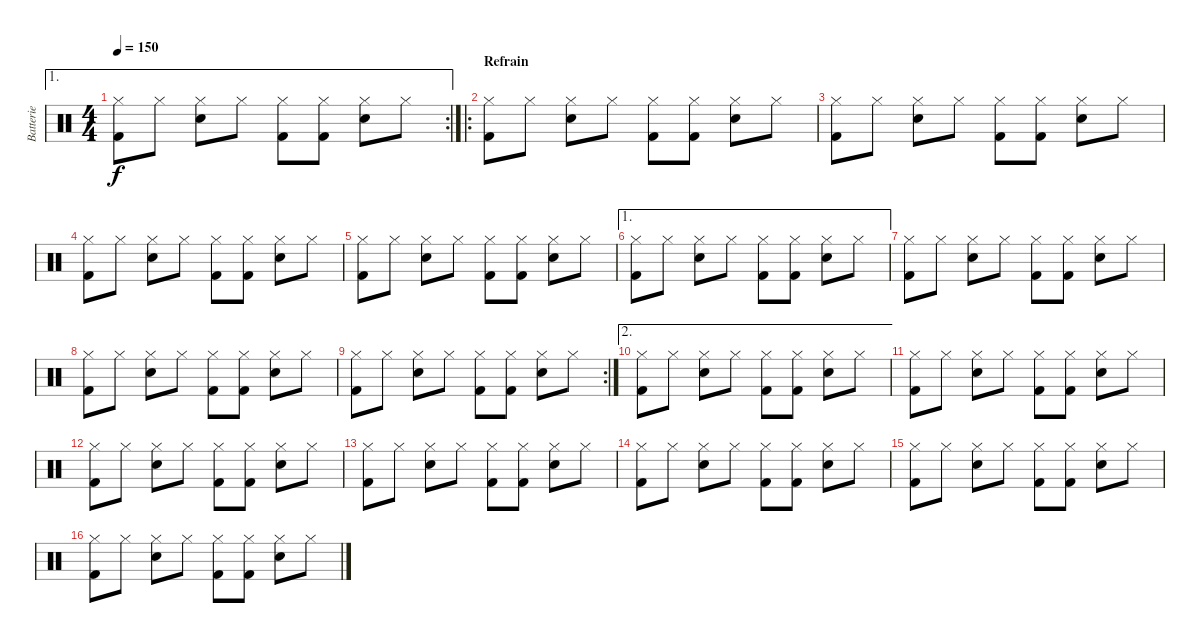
\track ("Batterie" "Batterie") {instrument percussion}
\staff {score}
\articulation defaults
\ae 1
\rc 2
\ts (4 4)
\tempo 150
\clef neutral
\ks c
("Hi-Hat (closed)" "Kick (hit) 2").8{dy f} "Hi-Hat (closed)".8 ("Hi-Hat (closed)" "Electric Snare (hit)").8 "Hi-Hat (closed)".8 ("Hi-Hat (closed)" "Kick (hit) 2").8 ("Hi-Hat (closed)" "Kick (hit) 2").8 ("Hi-Hat (closed)" "Electric Snare (hit)").8 "Hi-Hat (closed)".8 |
\ro
\section ("" "Refrain")
("Hi-Hat (closed)" "Kick (hit) 2").8 "Hi-Hat (closed)".8 ("Hi-Hat (closed)" "Electric Snare (hit)").8 "Hi-Hat (closed)".8 ("Hi-Hat (closed)" "Kick (hit) 2").8 ("Hi-Hat (closed)" "Kick (hit) 2").8 ("Hi-Hat (closed)" "Electric Snare (hit)").8 "Hi-Hat (closed)".8 |
("Hi-Hat (closed)" "Kick (hit) 2").8 "Hi-Hat (closed)".8 ("Hi-Hat (closed)" "Electric Snare (hit)").8 "Hi-Hat (closed)".8 ("Hi-Hat (closed)" "Kick (hit) 2").8 ("Hi-Hat (closed)" "Kick (hit) 2").8 ("Hi-Hat (closed)" "Electric Snare (hit)").8 "Hi-Hat (closed)".8 |
("Hi-Hat (closed)" "Kick (hit) 2").8 "Hi-Hat (closed)".8 ("Hi-Hat (closed)" "Electric Snare (hit)").8 "Hi-Hat (closed)".8 ("Hi-Hat (closed)" "Kick (hit) 2").8 ("Hi-Hat (closed)" "Kick (hit) 2").8 ("Hi-Hat (closed)" "Electric Snare (hit)").8 "Hi-Hat (closed)".8 |
("Hi-Hat (closed)" "Kick (hit) 2").8 "Hi-Hat (closed)".8 ("Hi-Hat (closed)" "Electric Snare (hit)").8 "Hi-Hat (closed)".8 ("Hi-Hat (closed)" "Kick (hit) 2").8 ("Hi-Hat (closed)" "Kick (hit) 2").8 ("Hi-Hat (closed)" "Electric Snare (hit)").8 "Hi-Hat (closed)".8 |
\ae 1
("Hi-Hat (closed)" "Kick (hit) 2").8 "Hi-Hat (closed)".8 ("Hi-Hat (closed)" "Electric Snare (hit)").8 "Hi-Hat (closed)".8 ("Hi-Hat (closed)" "Kick (hit) 2").8 ("Hi-Hat (closed)" "Kick (hit) 2").8 ("Hi-Hat (closed)" "Electric Snare (hit)").8 "Hi-Hat (closed)".8 |
("Hi-Hat (closed)" "Kick (hit) 2").8 "Hi-Hat (closed)".8 ("Hi-Hat (closed)" "Electric Snare (hit)").8 "Hi-Hat (closed)".8 ("Hi-Hat (closed)" "Kick (hit) 2").8 ("Hi-Hat (closed)" "Kick (hit) 2").8 ("Hi-Hat (closed)" "Electric Snare (hit)").8 "Hi-Hat (closed)".8 |
("Hi-Hat (closed)" "Kick (hit) 2").8 "Hi-Hat (closed)".8 ("Hi-Hat (closed)" "Electric Snare (hit)").8 "Hi-Hat (closed)".8 ("Hi-Hat (closed)" "Kick (hit) 2").8 ("Hi-Hat (closed)" "Kick (hit) 2").8 ("Hi-Hat (closed)" "Electric Snare (hit)").8 "Hi-Hat (closed)".8 |
\rc 2
("Hi-Hat (closed)" "Kick (hit) 2").8 "Hi-Hat (closed)".8 ("Hi-Hat (closed)" "Electric Snare (hit)").8 "Hi-Hat (closed)".8 ("Hi-Hat (closed)" "Kick (hit) 2").8 ("Hi-Hat (closed)" "Kick (hit) 2").8 ("Hi-Hat (closed)" "Electric Snare (hit)").8 "Hi-Hat (closed)".8 |
\ae 2
("Hi-Hat (closed)" "Kick (hit) 2").8 "Hi-Hat (closed)".8 ("Hi-Hat (closed)" "Electric Snare (hit)").8 "Hi-Hat (closed)".8 ("Hi-Hat (closed)" "Kick (hit) 2").8 ("Hi-Hat (closed)" "Kick (hit) 2").8 ("Hi-Hat (closed)" "Electric Snare (hit)").8 "Hi-Hat (closed)".8 |
("Hi-Hat (closed)" "Kick (hit) 2").8 "Hi-Hat (closed)".8 ("Hi-Hat (closed)" "Electric Snare (hit)").8 "Hi-Hat (closed)".8 ("Hi-Hat (closed)" "Kick (hit) 2").8 ("Hi-Hat (closed)" "Kick (hit) 2").8 ("Hi-Hat (closed)" "Electric Snare (hit)").8 "Hi-Hat (closed)".8 |
("Hi-Hat (closed)" "Kick (hit) 2").8 "Hi-Hat (closed)".8 ("Hi-Hat (closed)" "Electric Snare (hit)").8 "Hi-Hat (closed)".8 ("Hi-Hat (closed)" "Kick (hit) 2").8 ("Hi-Hat (closed)" "Kick (hit) 2").8 ("Hi-Hat (closed)" "Electric Snare (hit)").8 "Hi-Hat (closed)".8 |
("Hi-Hat (closed)" "Kick (hit) 2").8 "Hi-Hat (closed)".8 ("Hi-Hat (closed)" "Electric Snare (hit)").8 "Hi-Hat (closed)".8 ("Hi-Hat (closed)" "Kick (hit) 2").8 ("Hi-Hat (closed)" "Kick (hit) 2").8 ("Hi-Hat (closed)" "Electric Snare (hit)").8 "Hi-Hat (closed)".8 |
("Hi-Hat (closed)" "Kick (hit) 2").8 "Hi-Hat (closed)".8 ("Hi-Hat (closed)" "Electric Snare (hit)").8 "Hi-Hat (closed)".8 ("Hi-Hat (closed)" "Kick (hit) 2").8 ("Hi-Hat (closed)" "Kick (hit) 2").8 ("Hi-Hat (closed)" "Electric Snare (hit)").8 "Hi-Hat (closed)".8 |
("Hi-Hat (closed)" "Kick (hit) 2").8 "Hi-Hat (closed)".8 ("Hi-Hat (closed)" "Electric Snare (hit)").8 "Hi-Hat (closed)".8 ("Hi-Hat (closed)" "Kick (hit) 2").8 ("Hi-Hat (closed)" "Kick (hit) 2").8 ("Hi-Hat (closed)" "Electric Snare (hit)").8 "Hi-Hat (closed)".8 |
("Hi-Hat (closed)" "Kick (hit) 2").8 "Hi-Hat (closed)".8 ("Hi-Hat (closed)" "Electric Snare (hit)").8 "Hi-Hat (closed)".8 ("Hi-Hat (closed)" "Kick (hit) 2").8 ("Hi-Hat (closed)" "Kick (hit) 2").8 ("Hi-Hat (closed)" "Electric Snare (hit)").8 "Hi-Hat (closed)".8
